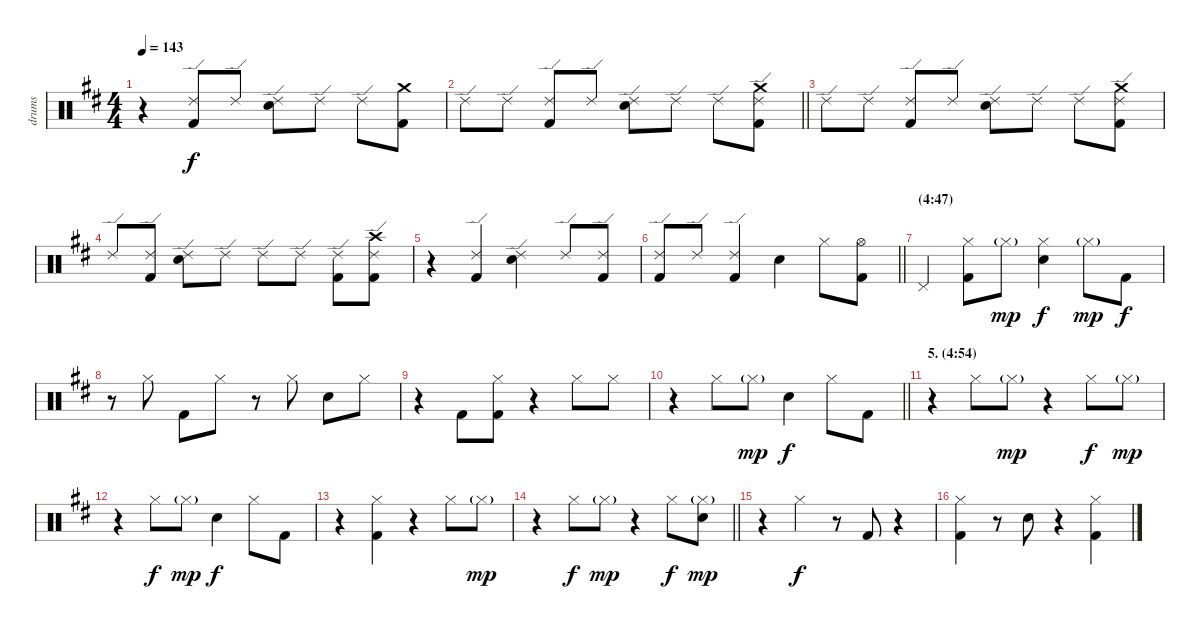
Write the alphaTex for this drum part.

\track ("drums" "drums") {instrument percussion}
\staff {score}
\articulation defaults
\ts (4 4)
\tempo 143
\clef neutral
\ks d
r.4{dy f} ("Ride (edge) 2" "Kick (hit) 2").8 "Ride (edge) 2".8 ("Ride (edge) 2" "Electric Snare (hit)").8 "Ride (edge) 2".8 "Ride (edge) 2".8 ("Crash medium (hit)" "Kick (hit) 2").8 |
\barLineRight lightlight "Ride (edge) 2".8 "Ride (edge) 2".8
("Ride (edge) 2" "Kick (hit) 2").8 "Ride (edge) 2".8 ("Ride (edge) 2" "Electric Snare (hit)").8 "Ride (edge) 2".8 "Ride (edge) 2".8 ("Ride (edge) 2" "Crash medium (hit)" "Kick (hit) 2").8 |
"Ride (edge) 2".8 "Ride (edge) 2".8 ("Ride (edge) 2" "Kick (hit) 2").8 "Ride (edge) 2".8 ("Ride (edge) 2" "Electric Snare (hit)").8 "Ride (edge) 2".8 "Ride (edge) 2".8 ("Ride (edge) 2" "Crash medium (hit)" "Kick (hit) 2").8 |
"Ride (edge) 2".8 ("Ride (edge) 2" "Kick (hit) 2").8 ("Ride (edge) 2" "Electric Snare (hit)").8 "Ride (edge) 2".8 "Ride (edge) 2".8 "Ride (edge) 2".8 ("Ride (edge) 2" "Kick (hit) 2").8 ("Ride (edge) 2" "Crash high (hit)" "Kick (hit) 2").8 |
r.4 ("Ride (edge) 2" "Kick (hit) 2").4 ("Ride (edge) 2" "Electric Snare (hit)").4 "Ride (edge) 2".8 ("Ride (edge) 2" "Kick (hit) 2").8 |
\barLineRight lightlight
("Ride (edge) 2" "Kick (hit) 2").8 "Ride (edge) 2".8 ("Ride (edge) 2" "Kick (hit) 2").4 "Electric Snare (hit)".4 "Hi-Hat (closed)".8 ("Hi-Hat (open)" "Kick (hit) 2").8 |
\section ("" "(4:47)")
"Pedal Hi-Hat (hit)".4 ("Hi-Hat (closed)" "Kick (hit) 2").8 "Hi-Hat (closed)"{g}.8{dy mp} ("Hi-Hat (closed)" "Electric Snare (hit)").4{dy f} "Hi-Hat (closed)"{g}.8{dy mp} "Kick (hit) 2".8{dy f} |
r.8 "Hi-Hat (closed)".8 "Kick (hit) 2".8 "Hi-Hat (closed)".8 r.8 "Hi-Hat (closed)".8 "Electric Snare (hit)".8 "Hi-Hat (closed)".8 |
r.4 "Kick (hit) 2".8 ("Hi-Hat (closed)" "Kick (hit) 2").8 r.4 "Hi-Hat (closed)".8 "Hi-Hat (closed)".8 |
\barLineRight lightlight
r.4 "Hi-Hat (closed)".8 "Hi-Hat (closed)"{g}.8{dy mp} "Electric Snare (hit)".4{dy f} "Hi-Hat (closed)".8 "Kick (hit) 2".8 |
\section ("" "5. (4:54)")
r.4 "Hi-Hat (closed)".8 "Hi-Hat (closed)"{g}.8{dy mp} r.4 "Hi-Hat (closed)".8{dy f} "Hi-Hat (closed)"{g}.8{dy mp} |
r.4 "Hi-Hat (closed)".8{dy f} "Hi-Hat (closed)"{g}.8{dy mp} "Electric Snare (hit)".4{dy f} "Hi-Hat (closed)".8 "Kick (hit) 2".8 |
r.4 ("Hi-Hat (closed)" "Kick (hit) 2").4 r.4 "Hi-Hat (closed)".8 "Hi-Hat (closed)"{g}.8{dy mp} |
\barLineRight lightlight
r.4 "Hi-Hat (closed)".8{dy f} "Hi-Hat (closed)"{g}.8{dy mp} r.4 "Hi-Hat (closed)".8{dy f} ("Hi-Hat (closed)"{g} "Electric Snare (hit)").8{dy mp} |
r.4 "Hi-Hat (closed)".4{dy f} r.8 "Kick (hit) 2".8 r.4 |
("Hi-Hat (closed)" "Kick (hit) 2").4 r.8 "Electric Snare (hit)".8 r.4 ("Hi-Hat (closed)" "Kick (hit) 2").4
